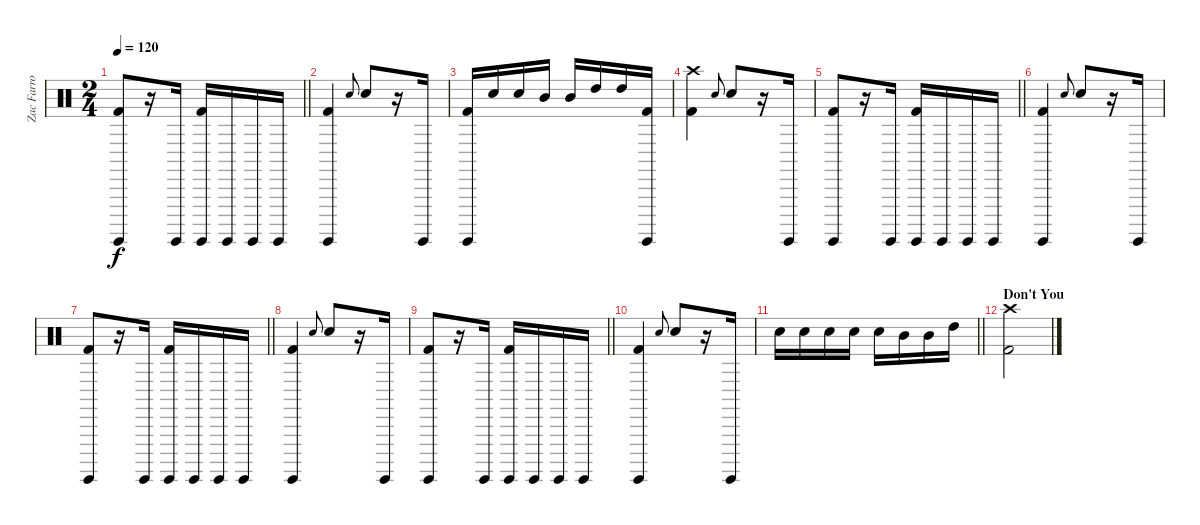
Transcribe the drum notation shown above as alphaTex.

\track ("Zac Farro" "Zac Farro") {instrument percussion}
\staff {score}
\articulation defaults
\ts (2 4)
\tempo 120
\clef neutral
\barLineRight lightlight
\ks c
("Surdo (hit)" "Kick (hit) 2").8{dy f} r.16 "Surdo (hit)".16 ("Surdo (hit)" "Kick (hit) 2").16 "Surdo (hit)".16 "Surdo (hit)".16 "Surdo (hit)".16 |
("Kick (hit) 2" "Surdo (hit)").4 "Electric Snare (hit)".8{gr onbeat} "Electric Snare (hit)".8 r.16 "Surdo (hit)".16 |
("Surdo (hit)" "Kick (hit) 2").16 "Electric Snare (hit)".16 "Electric Snare (hit)".16 "Mid Tom (hit)".16 "Mid Tom (hit)".16 "High Tom (hit)".16 "High Tom (hit)".16 ("Surdo (hit)" "Kick (hit) 2").16 |
("Crash high (hit)" "Kick (hit) 2").4 "Electric Snare (hit)".8{gr onbeat} "Electric Snare (hit)".8 r.16 "Surdo (hit)".16 |
\barLineRight lightlight
("Surdo (hit)" "Kick (hit) 2").8 r.16 "Surdo (hit)".16 ("Surdo (hit)" "Kick (hit) 2").16 "Surdo (hit)".16 "Surdo (hit)".16 "Surdo (hit)".16 |
("Kick (hit) 2" "Surdo (hit)").4 "Electric Snare (hit)".8{gr onbeat} "Electric Snare (hit)".8 r.16 "Surdo (hit)".16 |
\barLineRight lightlight
("Surdo (hit)" "Kick (hit) 2").8 r.16 "Surdo (hit)".16 ("Surdo (hit)" "Kick (hit) 2").16 "Surdo (hit)".16 "Surdo (hit)".16 "Surdo (hit)".16 |
("Kick (hit) 2" "Surdo (hit)").4 "Electric Snare (hit)".8{gr onbeat} "Electric Snare (hit)".8 r.16 "Surdo (hit)".16 |
\barLineRight lightlight
("Surdo (hit)" "Kick (hit) 2").8 r.16 "Surdo (hit)".16 ("Surdo (hit)" "Kick (hit) 2").16 "Surdo (hit)".16 "Surdo (hit)".16 "Surdo (hit)".16 |
("Kick (hit) 2" "Surdo (hit)").4 "Electric Snare (hit)".8{gr onbeat} "Electric Snare (hit)".8 r.16 "Surdo (hit)".16 |
\barLineRight lightlight "Electric Snare (hit)".16 "Electric Snare (hit)".16 "Electric Snare (hit)".16 "Electric Snare (hit)".16 "Electric Snare (hit)".16 "Mid Tom (hit)".16 "Mid Tom (hit)".16 "High Tom (hit)".16
|
\section ("" "Don't You")
("Crash high (hit)" "Kick (hit) 2").2
